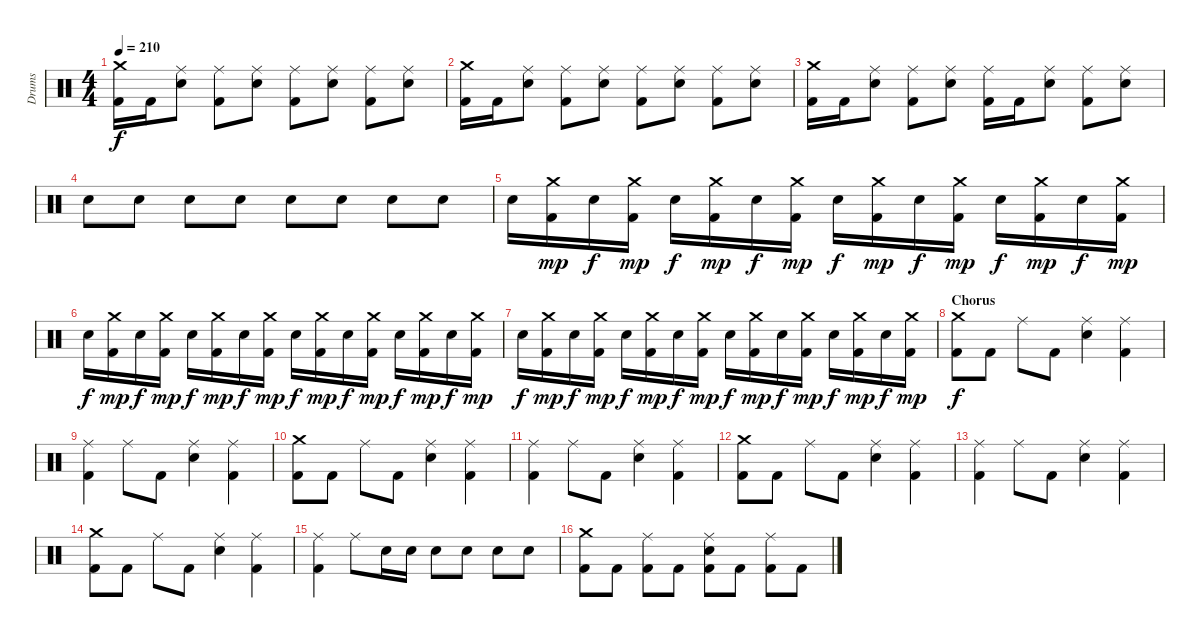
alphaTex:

\track ("Drums" "Drums") {instrument percussion}
\staff {score}
\articulation defaults
\ts (4 4)
\tempo 210
\clef neutral
\ks c
("Kick (hit) 2" "Crash medium (hit)").16{dy f} "Kick (hit) 2".16 ("Snare (hit) 2" "Ride (middle)").8 ("Kick (hit) 2" "Ride (middle)").8 ("Snare (hit) 2" "Ride (middle)").8 ("Kick (hit) 2" "Ride (middle)").8 ("Snare (hit) 2" "Ride (middle)").8 ("Kick (hit) 2" "Ride (middle)").8 ("Snare (hit) 2" "Ride (middle)").8 |
("Kick (hit) 2" "Crash medium (hit)").16 "Kick (hit) 2".16 ("Snare (hit) 2" "Ride (middle)").8 ("Kick (hit) 2" "Ride (middle)").8 ("Snare (hit) 2" "Ride (middle)").8 ("Kick (hit) 2" "Ride (middle)").8 ("Snare (hit) 2" "Ride (middle)").8 ("Kick (hit) 2" "Ride (middle)").8 ("Snare (hit) 2" "Ride (middle)").8 |
("Kick (hit) 2" "Crash medium (hit)").16 "Kick (hit) 2".16 ("Snare (hit) 2" "Ride (middle)").8 ("Kick (hit) 2" "Ride (middle)").8 ("Snare (hit) 2" "Ride (middle)").8 ("Kick (hit) 2" "Ride (middle)").16 "Kick (hit) 2".16 ("Snare (hit) 2" "Ride (middle)").8 ("Kick (hit) 2" "Ride (middle)").8 ("Snare (hit) 2" "Ride (middle)").8 |
"Snare (hit) 2".8 "Snare (hit) 2".8 "Snare (hit) 2".8 "Snare (hit) 2".8 "Snare (hit) 2".8 "Snare (hit) 2".8 "Snare (hit) 2".8 "Snare (hit) 2".8 |
"Snare (hit) 2".16 ("Kick (hit) 2" "Crash medium (hit)").16{dy mp} "Snare (hit) 2".16{dy f} ("Kick (hit) 2" "Crash medium (hit)").16{dy mp} "Snare (hit) 2".16{dy f} ("Kick (hit) 2" "Crash medium (hit)").16{dy mp} "Snare (hit) 2".16{dy f} ("Kick (hit) 2" "Crash medium (hit)").16{dy mp} "Snare (hit) 2".16{dy f} ("Kick (hit) 2" "Crash medium (hit)").16{dy mp} "Snare (hit) 2".16{dy f} ("Kick (hit) 2" "Crash medium (hit)").16{dy mp} "Snare (hit) 2".16{dy f} ("Kick (hit) 2" "Crash medium (hit)").16{dy mp} "Snare (hit) 2".16{dy f} ("Kick (hit) 2" "Crash medium (hit)").16{dy mp} |
"Snare (hit) 2".16{dy f} ("Kick (hit) 2" "Crash medium (hit)").16{dy mp} "Snare (hit) 2".16{dy f} ("Kick (hit) 2" "Crash medium (hit)").16{dy mp} "Snare (hit) 2".16{dy f} ("Kick (hit) 2" "Crash medium (hit)").16{dy mp} "Snare (hit) 2".16{dy f} ("Kick (hit) 2" "Crash medium (hit)").16{dy mp} "Snare (hit) 2".16{dy f} ("Kick (hit) 2" "Crash medium (hit)").16{dy mp} "Snare (hit) 2".16{dy f} ("Kick (hit) 2" "Crash medium (hit)").16{dy mp} "Snare (hit) 2".16{dy f} ("Kick (hit) 2" "Crash medium (hit)").16{dy mp} "Snare (hit) 2".16{dy f} ("Kick (hit) 2" "Crash medium (hit)").16{dy mp} |
"Snare (hit) 2".16{dy f} ("Kick (hit) 2" "Crash medium (hit)").16{dy mp} "Snare (hit) 2".16{dy f} ("Kick (hit) 2" "Crash medium (hit)").16{dy mp} "Snare (hit) 2".16{dy f} ("Kick (hit) 2" "Crash medium (hit)").16{dy mp} "Snare (hit) 2".16{dy f} ("Kick (hit) 2" "Crash medium (hit)").16{dy mp} "Snare (hit) 2".16{dy f} ("Kick (hit) 2" "Crash medium (hit)").16{dy mp} "Snare (hit) 2".16{dy f} ("Kick (hit) 2" "Crash medium (hit)").16{dy mp} "Snare (hit) 2".16{dy f} ("Kick (hit) 2" "Crash medium (hit)").16{dy mp} "Snare (hit) 2".16{dy f} ("Kick (hit) 2" "Crash medium (hit)").16{dy mp} |
\section ("" "Chorus")
("Kick (hit) 2" "Crash medium (hit)").8{dy f} "Kick (hit) 2".8 "Ride (middle)".8 "Kick (hit) 2".8 ("Snare (hit) 2" "Ride (middle)").4 ("Kick (hit) 2" "Ride (middle)").4 |
("Kick (hit) 2" "Ride (middle)").4 "Ride (middle)".8 "Kick (hit) 2".8 ("Snare (hit) 2" "Ride (middle)").4 ("Kick (hit) 2" "Ride (middle)").4 |
("Kick (hit) 2" "Crash medium (hit)").8 "Kick (hit) 2".8 "Ride (middle)".8 "Kick (hit) 2".8 ("Snare (hit) 2" "Ride (middle)").4 ("Kick (hit) 2" "Ride (middle)").4 |
("Kick (hit) 2" "Ride (middle)").4 "Ride (middle)".8 "Kick (hit) 2".8 ("Snare (hit) 2" "Ride (middle)").4 ("Kick (hit) 2" "Ride (middle)").4 |
("Kick (hit) 2" "Crash medium (hit)").8 "Kick (hit) 2".8 "Ride (middle)".8 "Kick (hit) 2".8 ("Snare (hit) 2" "Ride (middle)").4 ("Kick (hit) 2" "Ride (middle)").4 |
("Kick (hit) 2" "Ride (middle)").4 "Ride (middle)".8 "Kick (hit) 2".8 ("Snare (hit) 2" "Ride (middle)").4 ("Kick (hit) 2" "Ride (middle)").4 |
("Kick (hit) 2" "Crash medium (hit)").8 "Kick (hit) 2".8 "Ride (middle)".8 "Kick (hit) 2".8 ("Snare (hit) 2" "Ride (middle)").4 ("Kick (hit) 2" "Ride (middle)").4 |
("Kick (hit) 2" "Ride (middle)").4 "Ride (middle)".8 "Snare (hit) 2".16 "Snare (hit) 2".16 "Snare (hit) 2".8 "Snare (hit) 2".8 "Snare (hit) 2".8 "Snare (hit) 2".8 |
("Kick (hit) 2" "Crash medium (hit)").8 "Kick (hit) 2".8 ("Kick (hit) 2" "Ride (middle)").8 "Kick (hit) 2".8 ("Kick (hit) 2" "Snare (hit) 2" "Ride (middle)").8 "Kick (hit) 2".8 ("Kick (hit) 2" "Ride (middle)").8 "Kick (hit) 2".8
